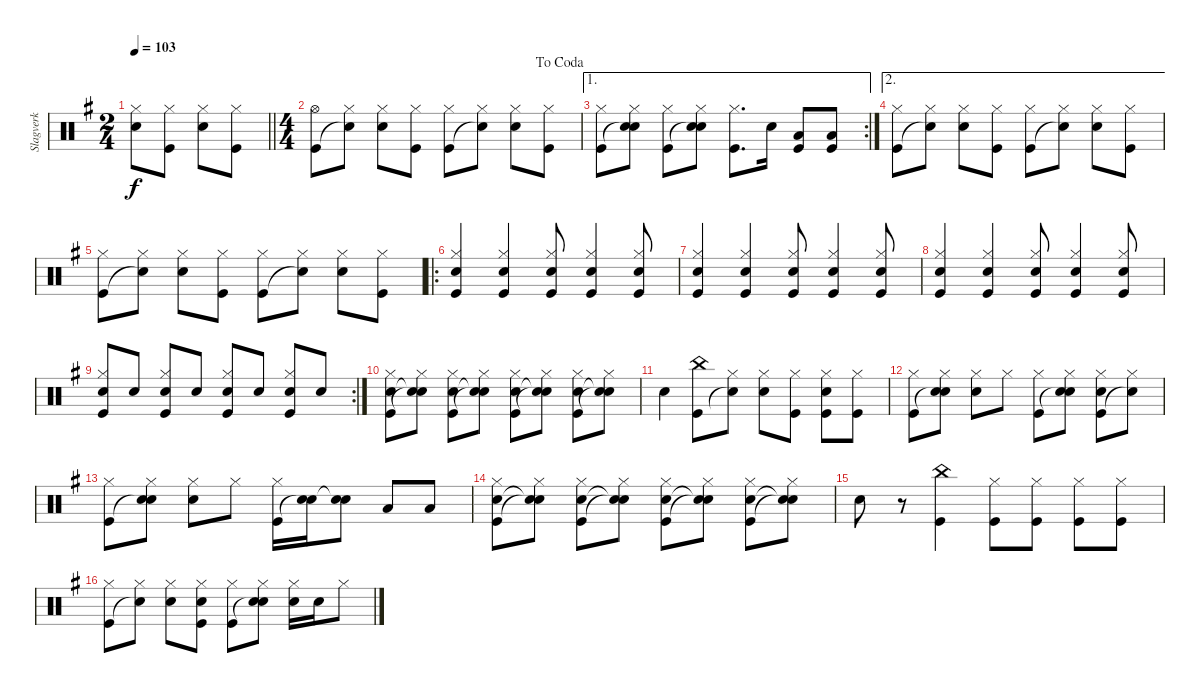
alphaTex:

\track ("Slagverk" "Slagverk") {instrument percussion}
\staff {score}
\articulation defaults
\ts (2 4)
\tempo 103
\clef neutral
\barLineRight lightlight
\ks g
("Snare (hit) 2" "Hi-Hat (closed)").8{dy f} ("Kick (hit)" "Hi-Hat (closed)").8 ("Snare (hit) 2" "Hi-Hat (closed)").8 ("Kick (hit)" "Hi-Hat (closed)").8 |
\ts (4 4)
\jump dacoda
("Kick (hit)" "Hi-Hat (open)").8 ("Snare (hit)"{t} "Hi-Hat (closed)").8 ("Snare (hit) 2" "Hi-Hat (closed)").8 ("Kick (hit)" "Hi-Hat (closed)").8 ("Kick (hit)" "Hi-Hat (closed)").8 ("Snare (hit)"{t} "Hi-Hat (closed)").8 ("Snare (hit) 2" "Hi-Hat (closed)").8 ("Kick (hit)" "Hi-Hat (closed)").8 |
\ae 1
\rc 2
("Kick (hit)" "Hi-Hat (closed)").8 ("Snare (hit)"{t} "Snare (hit) 2" "Hi-Hat (closed)").8 ("Kick (hit)" "Hi-Hat (closed)").8 ("Snare (hit)"{t} "Snare (hit) 2" "Hi-Hat (closed)").8 ("Kick (hit)" "Hi-Hat (closed)").8{d} "Snare (hit) 2".16 ("Kick (hit)" "Low Tom (hit)").8 ("Kick (hit)" "Low Tom (hit)").8 |
\ae 2
("Kick (hit)" "Hi-Hat (closed)").8 ("Snare (hit)"{t} "Hi-Hat (closed)").8 ("Snare (hit) 2" "Hi-Hat (closed)").8 ("Kick (hit)" "Hi-Hat (closed)").8 ("Kick (hit)" "Hi-Hat (closed)").8 ("Snare (hit)"{t} "Hi-Hat (closed)").8 ("Snare (hit) 2" "Hi-Hat (closed)").8 ("Kick (hit)" "Hi-Hat (closed)").8 |
("Kick (hit)" "Hi-Hat (closed)").8 ("Snare (hit)"{t} "Hi-Hat (closed)").8 ("Snare (hit) 2" "Hi-Hat (closed)").8 ("Kick (hit)" "Hi-Hat (closed)").8 ("Kick (hit)" "Hi-Hat (closed)").8 ("Snare (hit)"{t} "Hi-Hat (closed)").8 ("Snare (hit) 2" "Hi-Hat (closed)").8 ("Kick (hit)" "Hi-Hat (closed)").8 |
\ro
("Kick (hit)" "Snare (hit) 2" "Hi-Hat (closed)").4 ("Kick (hit)" "Snare (hit) 2" "Hi-Hat (closed)").4 ("Kick (hit)" "Snare (hit) 2" "Hi-Hat (closed)").8 ("Kick (hit)" "Snare (hit) 2" "Hi-Hat (closed)").4 ("Kick (hit)" "Snare (hit) 2" "Hi-Hat (closed)").8 |
("Kick (hit)" "Snare (hit) 2" "Hi-Hat (closed)").4 ("Kick (hit)" "Snare (hit) 2" "Hi-Hat (closed)").4 ("Kick (hit)" "Snare (hit) 2" "Hi-Hat (closed)").8 ("Kick (hit)" "Snare (hit) 2" "Hi-Hat (closed)").4 ("Kick (hit)" "Snare (hit) 2" "Hi-Hat (closed)").8 |
("Kick (hit)" "Snare (hit) 2" "Hi-Hat (closed)").4 ("Kick (hit)" "Snare (hit) 2" "Hi-Hat (closed)").4 ("Kick (hit)" "Snare (hit) 2" "Hi-Hat (closed)").8 ("Kick (hit)" "Snare (hit) 2" "Hi-Hat (closed)").4 ("Kick (hit)" "Snare (hit) 2" "Hi-Hat (closed)").8 |
\rc 2
("Kick (hit)" "Snare (hit) 2" "Hi-Hat (closed)").8 "Snare (hit) 2".8 ("Kick (hit)" "Snare (hit) 2" "Hi-Hat (closed)").8 "Snare (hit) 2".8 ("Kick (hit)" "Snare (hit) 2" "Hi-Hat (closed)").8 "Snare (hit) 2".8 ("Kick (hit)" "Snare (hit) 2" "Hi-Hat (closed)").8 "Snare (hit) 2".8 |
("Kick (hit)" "Snare (hit) 2" "Hi-Hat (closed)").8 ("Snare (hit)"{t} "Snare (hit)"{t} "Hi-Hat (closed)").8 ("Kick (hit)" "Snare (hit) 2" "Hi-Hat (closed)").8 ("Snare (hit)"{t} "Snare (hit)"{t} "Hi-Hat (closed)").8 ("Kick (hit)" "Snare (hit) 2" "Hi-Hat (closed)").8 ("Snare (hit)"{t} "Snare (hit)"{t} "Hi-Hat (closed)").8 ("Kick (hit)" "Snare (hit) 2" "Hi-Hat (closed)").8 ("Snare (hit)"{t} "Snare (hit)"{t} "Hi-Hat (closed)").8 |
"Snare (hit) 2".4 ("Kick (hit)" "China (hit)").8 ("Snare (hit)"{t} "Hi-Hat (closed)").8 ("Snare (hit) 2" "Hi-Hat (closed)").8 ("Kick (hit)" "Hi-Hat (closed)").8 ("Kick (hit)" "Snare (hit) 2" "Hi-Hat (closed)").8 ("Kick (hit)" "Hi-Hat (closed)").8 |
("Kick (hit)" "Hi-Hat (closed)").8 ("Snare (hit)"{t} "Snare (hit) 2" "Hi-Hat (closed)").8 ("Snare (hit) 2" "Hi-Hat (closed)").8 "Hi-Hat (closed)".8 ("Kick (hit)" "Hi-Hat (closed)").8 ("Snare (hit)"{t} "Snare (hit) 2" "Hi-Hat (closed)").8 ("Kick (hit)" "Snare (hit) 2" "Hi-Hat (closed)").8 ("Snare (hit)"{t} "Hi-Hat (closed)").8 |
("Kick (hit)" "Hi-Hat (closed)").8 ("Snare (hit)"{t} "Snare (hit) 2" "Hi-Hat (closed)").8 ("Snare (hit) 2" "Hi-Hat (closed)").8 "Hi-Hat (closed)".8 ("Kick (hit)" "Hi-Hat (closed)").16 ("Snare (hit)"{t} "Snare (hit) 2").16 ("Snare (hit)"{t} "Snare (hit) 2").8 "Low Tom (hit)".8 "Low Tom (hit)".8 |
("Kick (hit)" "Snare (hit) 2" "Hi-Hat (closed)").8 ("Snare (hit)"{t} "Snare (hit)"{t} "Hi-Hat (closed)").8 ("Kick (hit)" "Snare (hit) 2" "Hi-Hat (closed)").8 ("Snare (hit)"{t} "Snare (hit)"{t} "Hi-Hat (closed)").8 ("Kick (hit)" "Snare (hit) 2" "Hi-Hat (closed)").8 ("Snare (hit)"{t} "Snare (hit)"{t} "Hi-Hat (closed)").8 ("Kick (hit)" "Snare (hit) 2" "Hi-Hat (closed)").8 ("Snare (hit)"{t} "Snare (hit)"{t} "Hi-Hat (closed)").8 |
"Snare (hit) 2".8 r.8 ("Kick (hit)" "China (hit)").4 ("Kick (hit)" "Hi-Hat (closed)").8 ("Kick (hit)" "Hi-Hat (closed)").8 ("Kick (hit)" "Hi-Hat (closed)").8 ("Kick (hit)" "Hi-Hat (closed)").8 |
("Kick (hit)" "Hi-Hat (closed)").8 ("Snare (hit)"{t} "Hi-Hat (closed)").8 ("Snare (hit) 2" "Hi-Hat (closed)").8 ("Kick (hit)" "Snare (hit) 2" "Hi-Hat (closed)").8 ("Kick (hit)" "Hi-Hat (closed)").8 ("Snare (hit)"{t} "Snare (hit) 2" "Hi-Hat (closed)").8 ("Snare (hit) 2" "Hi-Hat (closed)").16 "Snare (hit) 2".16 "Hi-Hat (closed)".8
